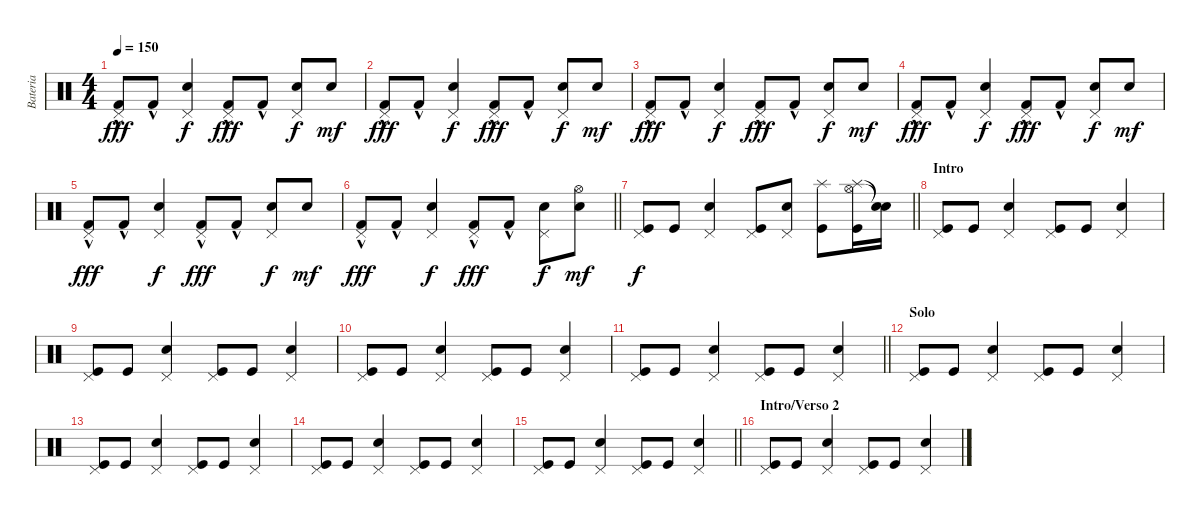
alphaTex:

\track ("Bateria" "Bateria") {instrument percussion}
\staff {score}
\articulation defaults
\ts (4 4)
\tempo 150
\clef neutral
\ks c
("Pedal Hi-Hat (hit)" "Kick (hit) 2"{hac}).8{dy fff} "Kick (hit) 2"{hac}.8 ("Pedal Hi-Hat (hit)" "Electric Snare (hit)").4{dy f} ("Pedal Hi-Hat (hit)" "Kick (hit) 2"{hac}).8{dy fff} "Kick (hit) 2"{hac}.8 ("Pedal Hi-Hat (hit)" "Electric Snare (hit)").8{dy f} "Electric Snare (hit)".8{dy mf} |
("Pedal Hi-Hat (hit)" "Kick (hit) 2"{hac}).8{dy fff} "Kick (hit) 2"{hac}.8 ("Pedal Hi-Hat (hit)" "Electric Snare (hit)").4{dy f} ("Pedal Hi-Hat (hit)" "Kick (hit) 2"{hac}).8{dy fff} "Kick (hit) 2"{hac}.8 ("Pedal Hi-Hat (hit)" "Electric Snare (hit)").8{dy f} "Electric Snare (hit)".8{dy mf} |
("Pedal Hi-Hat (hit)" "Kick (hit) 2"{hac}).8{dy fff} "Kick (hit) 2"{hac}.8 ("Pedal Hi-Hat (hit)" "Electric Snare (hit)").4{dy f} ("Pedal Hi-Hat (hit)" "Kick (hit) 2"{hac}).8{dy fff} "Kick (hit) 2"{hac}.8 ("Pedal Hi-Hat (hit)" "Electric Snare (hit)").8{dy f} "Electric Snare (hit)".8{dy mf} |
("Pedal Hi-Hat (hit)" "Kick (hit) 2"{hac}).8{dy fff} "Kick (hit) 2"{hac}.8 ("Pedal Hi-Hat (hit)" "Electric Snare (hit)").4{dy f} ("Pedal Hi-Hat (hit)" "Kick (hit) 2"{hac}).8{dy fff} "Kick (hit) 2"{hac}.8 ("Pedal Hi-Hat (hit)" "Electric Snare (hit)").8{dy f} "Electric Snare (hit)".8{dy mf} |
("Pedal Hi-Hat (hit)" "Kick (hit) 2"{hac}).8{dy fff} "Kick (hit) 2"{hac}.8 ("Pedal Hi-Hat (hit)" "Electric Snare (hit)").4{dy f} ("Pedal Hi-Hat (hit)" "Kick (hit) 2"{hac}).8{dy fff} "Kick (hit) 2"{hac}.8 ("Pedal Hi-Hat (hit)" "Electric Snare (hit)").8{dy f} "Electric Snare (hit)".8{dy mf} |
\barLineRight lightlight
("Pedal Hi-Hat (hit)" "Kick (hit) 2"{hac}).8{dy fff} "Kick (hit) 2"{hac}.8 ("Pedal Hi-Hat (hit)" "Electric Snare (hit)").4{dy f} ("Pedal Hi-Hat (hit)" "Kick (hit) 2"{hac}).8{dy fff} "Kick (hit) 2"{hac}.8 ("Pedal Hi-Hat (hit)" "Electric Snare (hit)").8{dy f} ("Hi-Hat (open)" "Electric Snare (hit)").8{dy mf} |
\barLineRight lightlight
("Pedal Hi-Hat (hit)" "Kick (hit)").8{dy f} "Kick (hit)".8 ("Pedal Hi-Hat (hit)" "Snare (hit) 2").4 ("Pedal Hi-Hat (hit)" "Kick (hit)").8 ("Pedal Hi-Hat (hit)" "Snare (hit) 2").8 ("Splash (hit)" "Kick (hit)").8 ("Splash (hit)" "Hi-Hat (open)" "Kick (hit)").16 ("Snare (hit)"{t} "Snare (hit)"{t}).16 |
\section ("" "Intro")
("Pedal Hi-Hat (hit)" "Kick (hit)").8 "Kick (hit)".8 ("Pedal Hi-Hat (hit)" "Snare (hit) 2").4 ("Pedal Hi-Hat (hit)" "Kick (hit)").8 "Kick (hit)".8 ("Pedal Hi-Hat (hit)" "Snare (hit) 2").4 |
("Pedal Hi-Hat (hit)" "Kick (hit)").8 "Kick (hit)".8 ("Pedal Hi-Hat (hit)" "Snare (hit) 2").4 ("Pedal Hi-Hat (hit)" "Kick (hit)").8 "Kick (hit)".8 ("Pedal Hi-Hat (hit)" "Snare (hit) 2").4 |
("Pedal Hi-Hat (hit)" "Kick (hit)").8 "Kick (hit)".8 ("Pedal Hi-Hat (hit)" "Snare (hit) 2").4 ("Pedal Hi-Hat (hit)" "Kick (hit)").8 "Kick (hit)".8 ("Pedal Hi-Hat (hit)" "Snare (hit) 2").4 |
\barLineRight lightlight
("Pedal Hi-Hat (hit)" "Kick (hit)").8 "Kick (hit)".8 ("Pedal Hi-Hat (hit)" "Snare (hit) 2").4 ("Pedal Hi-Hat (hit)" "Kick (hit)").8 "Kick (hit)".8 ("Pedal Hi-Hat (hit)" "Snare (hit) 2").4 |
\section ("" "Solo")
("Pedal Hi-Hat (hit)" "Kick (hit)").8 "Kick (hit)".8 ("Pedal Hi-Hat (hit)" "Snare (hit) 2").4 ("Pedal Hi-Hat (hit)" "Kick (hit)").8 "Kick (hit)".8 ("Pedal Hi-Hat (hit)" "Snare (hit) 2").4 |
("Pedal Hi-Hat (hit)" "Kick (hit)").8 "Kick (hit)".8 ("Pedal Hi-Hat (hit)" "Snare (hit) 2").4 ("Pedal Hi-Hat (hit)" "Kick (hit)").8 "Kick (hit)".8 ("Pedal Hi-Hat (hit)" "Snare (hit) 2").4 |
("Pedal Hi-Hat (hit)" "Kick (hit)").8 "Kick (hit)".8 ("Pedal Hi-Hat (hit)" "Snare (hit) 2").4 ("Pedal Hi-Hat (hit)" "Kick (hit)").8 "Kick (hit)".8 ("Pedal Hi-Hat (hit)" "Snare (hit) 2").4 |
\barLineRight lightlight
("Pedal Hi-Hat (hit)" "Kick (hit)").8 "Kick (hit)".8 ("Pedal Hi-Hat (hit)" "Snare (hit) 2").4 ("Pedal Hi-Hat (hit)" "Kick (hit)").8 "Kick (hit)".8 ("Pedal Hi-Hat (hit)" "Snare (hit) 2").4 |
\section ("" "Intro/Verso 2")
("Pedal Hi-Hat (hit)" "Kick (hit)").8 "Kick (hit)".8 ("Pedal Hi-Hat (hit)" "Snare (hit) 2").4 ("Pedal Hi-Hat (hit)" "Kick (hit)").8 "Kick (hit)".8 ("Pedal Hi-Hat (hit)" "Snare (hit) 2").4
